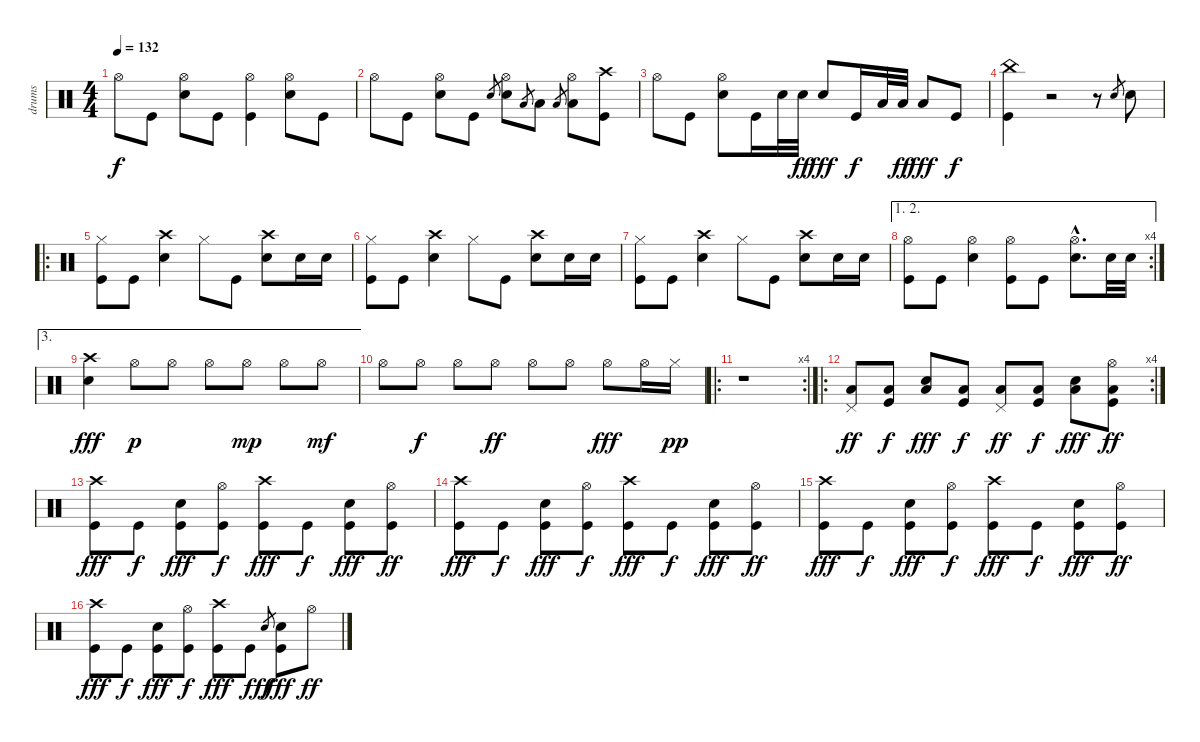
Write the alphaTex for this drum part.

\track ("drums" "drums") {instrument percussion}
\staff {score}
\articulation defaults
\ts (4 4)
\tempo 132
\clef neutral
\ks c "Hi-Hat (open)".8{dy f} "Kick (hit)".8
("Hi-Hat (open)" "Electric Snare (hit)").8 "Kick (hit)".8 ("Hi-Hat (open)" "Kick (hit)").4 ("Hi-Hat (open)" "Electric Snare (hit)").8 "Kick (hit)".8 |
"Hi-Hat (open)".8 "Kick (hit)".8 ("Hi-Hat (open)" "Electric Snare (hit)").8 "Kick (hit)".8 "Electric Snare (hit)".8{gr} ("Hi-Hat (open)" "Electric Snare (hit)").8 "Low Tom (hit)".8{gr} "Low Tom (hit)".8 "Low Floor Tom (hit)".8{gr} ("Hi-Hat (open)" "Low Floor Tom (hit)").8 ("Crash high (hit)" "Kick (hit)").8 |
"Hi-Hat (open)".8 "Kick (hit)".8 ("Hi-Hat (open)" "Electric Snare (hit)").8 "Kick (hit)".16 "Electric Snare (hit)".32 "Electric Snare (hit)".32{dy ff} "Electric Snare (hit)".8{dy fff} "Kick (hit)".16{dy f} "Low Tom (hit)".32 "Low Tom (hit)".32{dy ff} "Low Floor Tom (hit)".8{dy fff} "Kick (hit)".8{dy f} |
("China (hit)" "Kick (hit)").4 r.2 r.8 "Electric Snare (hit)".8{gr} "Electric Snare (hit)".8 |
\ro
("Hi-Hat (closed)" "Kick (hit)").8 "Kick (hit)".8 ("Crash high (hit)" "Electric Snare (hit)").4 "Hi-Hat (closed)".8 "Kick (hit)".8 ("Crash high (hit)" "Electric Snare (hit)").8 "Electric Snare (hit)".16 "Electric Snare (hit)".16 |
("Hi-Hat (closed)" "Kick (hit)").8 "Kick (hit)".8 ("Crash high (hit)" "Electric Snare (hit)").4 "Hi-Hat (closed)".8 "Kick (hit)".8 ("Crash high (hit)" "Electric Snare (hit)").8 "Electric Snare (hit)".16 "Electric Snare (hit)".16 |
("Hi-Hat (closed)" "Kick (hit)").8 "Kick (hit)".8 ("Crash high (hit)" "Electric Snare (hit)").4 "Hi-Hat (closed)".8 "Kick (hit)".8 ("Crash high (hit)" "Electric Snare (hit)").8 "Electric Snare (hit)".16 "Electric Snare (hit)".16 |
\ae (1 2)
\rc 4
("Hi-Hat (open)" "Kick (hit)").8 "Kick (hit)".8 ("Hi-Hat (open)" "Electric Snare (hit)").4 ("Hi-Hat (open)" "Kick (hit)").8 "Kick (hit)".8 ("Hi-Hat (open)"{hac} "Electric Snare (hit)"{hac}).8{d} "Electric Snare (hit)".32 "Electric Snare (hit)".32 |
\ae 3
("Crash high (hit)" "Electric Snare (hit)").4{dy fff} "Hi-Hat (open)".8{dy p} "Hi-Hat (open)".8 "Hi-Hat (open)".8 "Hi-Hat (open)".8{dy mp} "Hi-Hat (open)".8 "Hi-Hat (open)".8{dy mf} |
"Hi-Hat (open)".8 "Hi-Hat (open)".8{dy f} "Hi-Hat (open)".8 "Hi-Hat (open)".8{dy ff} "Hi-Hat (open)".8 "Hi-Hat (open)".8 "Hi-Hat (open)".8{dy fff} "Hi-Hat (open)".16 "Hi-Hat (closed)".16{dy pp} |
\ro
\rc 4
r.1 |
\ro
\rc 4
("Pedal Hi-Hat (hit)" "Low Floor Tom (hit)").8{dy ff} ("Low Floor Tom (hit)" "Kick (hit)").8{dy f} ("Electric Snare (hit)" "Low Floor Tom (hit)").8{dy fff} ("Low Floor Tom (hit)" "Kick (hit)").8{dy f} ("Pedal Hi-Hat (hit)" "Low Floor Tom (hit)").8{dy ff} ("Low Floor Tom (hit)" "Kick (hit)").8{dy f} ("Electric Snare (hit)" "Low Floor Tom (hit)").8{dy fff} ("Hi-Hat (open)" "Low Floor Tom (hit)" "Kick (hit)").8{dy ff} |
("Crash high (hit)" "Kick (hit)").8{dy fff} "Kick (hit)".8{dy f} ("Electric Snare (hit)" "Kick (hit)").8{dy fff} ("Hi-Hat (open)" "Kick (hit)").8{dy f} ("Crash high (hit)" "Kick (hit)").8{dy fff} "Kick (hit)".8{dy f} ("Electric Snare (hit)" "Kick (hit)").8{dy fff} ("Hi-Hat (open)" "Kick (hit)").8{dy ff} |
("Crash high (hit)" "Kick (hit)").8{dy fff} "Kick (hit)".8{dy f} ("Electric Snare (hit)" "Kick (hit)").8{dy fff} ("Hi-Hat (open)" "Kick (hit)").8{dy f} ("Crash high (hit)" "Kick (hit)").8{dy fff} "Kick (hit)".8{dy f} ("Electric Snare (hit)" "Kick (hit)").8{dy fff} ("Hi-Hat (open)" "Kick (hit)").8{dy ff} |
("Crash high (hit)" "Kick (hit)").8{dy fff} "Kick (hit)".8{dy f} ("Electric Snare (hit)" "Kick (hit)").8{dy fff} ("Hi-Hat (open)" "Kick (hit)").8{dy f} ("Crash high (hit)" "Kick (hit)").8{dy fff} "Kick (hit)".8{dy f} ("Electric Snare (hit)" "Kick (hit)").8{dy fff} ("Hi-Hat (open)" "Kick (hit)").8{dy ff} |
("Crash high (hit)" "Kick (hit)").8{dy fff} "Kick (hit)".8{dy f} ("Electric Snare (hit)" "Kick (hit)").8{dy fff} ("Hi-Hat (open)" "Kick (hit)").8{dy f} ("Crash high (hit)" "Kick (hit)").8{dy fff} "Kick (hit)".8{dy f} "Electric Snare (hit)".8{gr dy ff} ("Electric Snare (hit)" "Kick (hit)").8{dy fff} "Hi-Hat (open)".8{dy ff}
